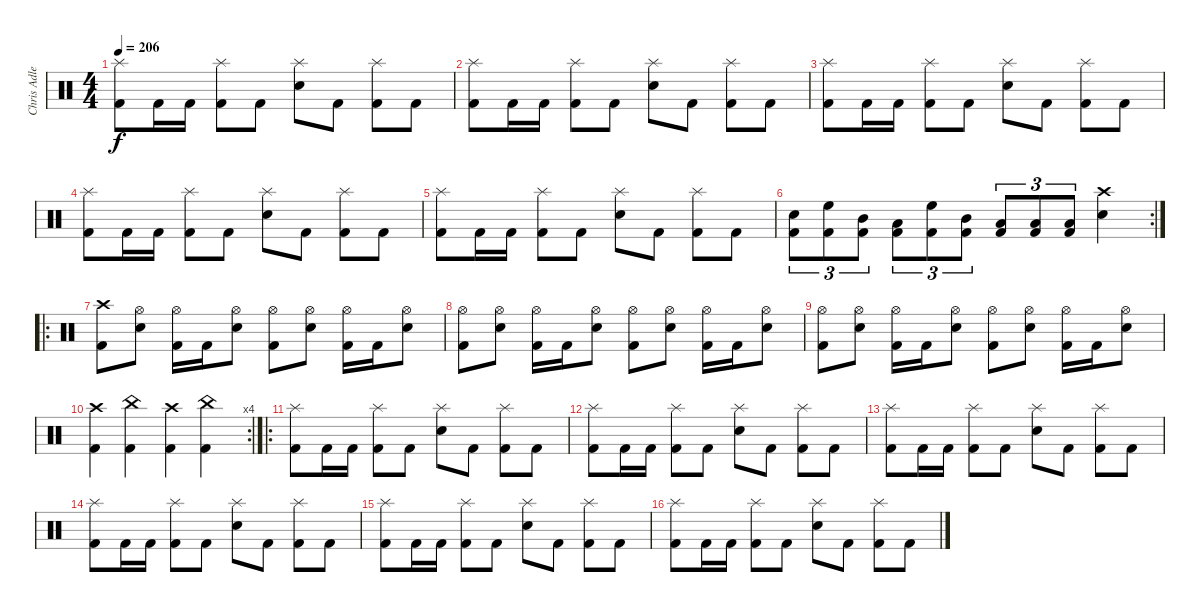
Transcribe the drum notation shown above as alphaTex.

\track ("Chris Adler" "Chris Adle") {instrument percussion}
\staff {score}
\articulation defaults
\ts (4 4)
\tempo 206
\clef neutral
\ks c
("Splash (hit)" "Kick (hit) 2").8{dy f} "Kick (hit) 2".16 "Kick (hit) 2".16 ("Splash (hit)" "Kick (hit) 2").8 "Kick (hit) 2".8 ("Splash (hit)" "Electric Snare (hit)").8 "Kick (hit) 2".8 ("Splash (hit)" "Kick (hit) 2").8 "Kick (hit) 2".8 |
("Splash (hit)" "Kick (hit) 2").8 "Kick (hit) 2".16 "Kick (hit) 2".16 ("Splash (hit)" "Kick (hit) 2").8 "Kick (hit) 2".8 ("Splash (hit)" "Electric Snare (hit)").8 "Kick (hit) 2".8 ("Splash (hit)" "Kick (hit) 2").8 "Kick (hit) 2".8 |
("Splash (hit)" "Kick (hit) 2").8 "Kick (hit) 2".16 "Kick (hit) 2".16 ("Splash (hit)" "Kick (hit) 2").8 "Kick (hit) 2".8 ("Splash (hit)" "Electric Snare (hit)").8 "Kick (hit) 2".8 ("Splash (hit)" "Kick (hit) 2").8 "Kick (hit) 2".8 |
("Splash (hit)" "Kick (hit) 2").8 "Kick (hit) 2".16 "Kick (hit) 2".16 ("Splash (hit)" "Kick (hit) 2").8 "Kick (hit) 2".8 ("Splash (hit)" "Electric Snare (hit)").8 "Kick (hit) 2".8 ("Splash (hit)" "Kick (hit) 2").8 "Kick (hit) 2".8 |
("Splash (hit)" "Kick (hit) 2").8 "Kick (hit) 2".16 "Kick (hit) 2".16 ("Splash (hit)" "Kick (hit) 2").8 "Kick (hit) 2".8 ("Splash (hit)" "Electric Snare (hit)").8 "Kick (hit) 2".8 ("Splash (hit)" "Kick (hit) 2").8 "Kick (hit) 2".8 |
\rc 2
("Kick (hit) 2" "Electric Snare (hit)").8{tu (3 2)} ("Kick (hit) 2" "High Floor Tom (hit)").8{tu (3 2)} ("Kick (hit) 2" "Mid Tom (hit)").8{tu (3 2)} ("Kick (hit) 2" "Low Tom (hit)").8{tu (3 2)} ("Kick (hit) 2" "High Floor Tom (hit)").8{tu (3 2)} ("Kick (hit) 2" "Mid Tom (hit)").8{tu (3 2)} ("Kick (hit) 2" "Low Tom (hit)").8{tu (3 2)} ("Kick (hit) 2" "Low Floor Tom (hit)").8{tu (3 2)} ("Kick (hit) 2" "Low Tom (hit)").8{tu (3 2)} ("Crash high (hit)" "Electric Snare (hit)").4 |
\ro
("Crash high (hit)" "Kick (hit) 2").8 ("Hi-Hat (open)" "Electric Snare (hit)").8 ("Hi-Hat (open)" "Kick (hit) 2").16 "Kick (hit) 2".16 ("Hi-Hat (open)" "Electric Snare (hit)").8 ("Hi-Hat (open)" "Kick (hit) 2").8 ("Hi-Hat (open)" "Electric Snare (hit)").8 ("Hi-Hat (open)" "Kick (hit) 2").16 "Kick (hit) 2".16 ("Hi-Hat (open)" "Electric Snare (hit)").8 |
("Hi-Hat (open)" "Kick (hit) 2").8 ("Hi-Hat (open)" "Electric Snare (hit)").8 ("Hi-Hat (open)" "Kick (hit) 2").16 "Kick (hit) 2".16 ("Hi-Hat (open)" "Electric Snare (hit)").8 ("Hi-Hat (open)" "Kick (hit) 2").8 ("Hi-Hat (open)" "Electric Snare (hit)").8 ("Hi-Hat (open)" "Kick (hit) 2").16 "Kick (hit) 2".16 ("Hi-Hat (open)" "Electric Snare (hit)").8 |
("Hi-Hat (open)" "Kick (hit) 2").8 ("Hi-Hat (open)" "Electric Snare (hit)").8 ("Hi-Hat (open)" "Kick (hit) 2").16 "Kick (hit) 2".16 ("Hi-Hat (open)" "Electric Snare (hit)").8 ("Hi-Hat (open)" "Kick (hit) 2").8 ("Hi-Hat (open)" "Electric Snare (hit)").8 ("Hi-Hat (open)" "Kick (hit) 2").16 "Kick (hit) 2".16 ("Hi-Hat (open)" "Electric Snare (hit)").8 |
\rc 4
("Crash high (hit)" "Kick (hit) 2").4 ("China (hit)" "Kick (hit) 2").4 ("Crash high (hit)" "Kick (hit) 2").4 ("China (hit)" "Kick (hit) 2").4 |
\ro
("Splash (hit)" "Kick (hit) 2").8 "Kick (hit) 2".16 "Kick (hit) 2".16 ("Splash (hit)" "Kick (hit) 2").8 "Kick (hit) 2".8 ("Splash (hit)" "Electric Snare (hit)").8 "Kick (hit) 2".8 ("Splash (hit)" "Kick (hit) 2").8 "Kick (hit) 2".8 |
("Splash (hit)" "Kick (hit) 2").8 "Kick (hit) 2".16 "Kick (hit) 2".16 ("Splash (hit)" "Kick (hit) 2").8 "Kick (hit) 2".8 ("Splash (hit)" "Electric Snare (hit)").8 "Kick (hit) 2".8 ("Splash (hit)" "Kick (hit) 2").8 "Kick (hit) 2".8 |
("Splash (hit)" "Kick (hit) 2").8 "Kick (hit) 2".16 "Kick (hit) 2".16 ("Splash (hit)" "Kick (hit) 2").8 "Kick (hit) 2".8 ("Splash (hit)" "Electric Snare (hit)").8 "Kick (hit) 2".8 ("Splash (hit)" "Kick (hit) 2").8 "Kick (hit) 2".8 |
("Splash (hit)" "Kick (hit) 2").8 "Kick (hit) 2".16 "Kick (hit) 2".16 ("Splash (hit)" "Kick (hit) 2").8 "Kick (hit) 2".8 ("Splash (hit)" "Electric Snare (hit)").8 "Kick (hit) 2".8 ("Splash (hit)" "Kick (hit) 2").8 "Kick (hit) 2".8 |
("Splash (hit)" "Kick (hit) 2").8 "Kick (hit) 2".16 "Kick (hit) 2".16 ("Splash (hit)" "Kick (hit) 2").8 "Kick (hit) 2".8 ("Splash (hit)" "Electric Snare (hit)").8 "Kick (hit) 2".8 ("Splash (hit)" "Kick (hit) 2").8 "Kick (hit) 2".8 |
("Splash (hit)" "Kick (hit) 2").8 "Kick (hit) 2".16 "Kick (hit) 2".16 ("Splash (hit)" "Kick (hit) 2").8 "Kick (hit) 2".8 ("Splash (hit)" "Electric Snare (hit)").8 "Kick (hit) 2".8 ("Splash (hit)" "Kick (hit) 2").8 "Kick (hit) 2".8
